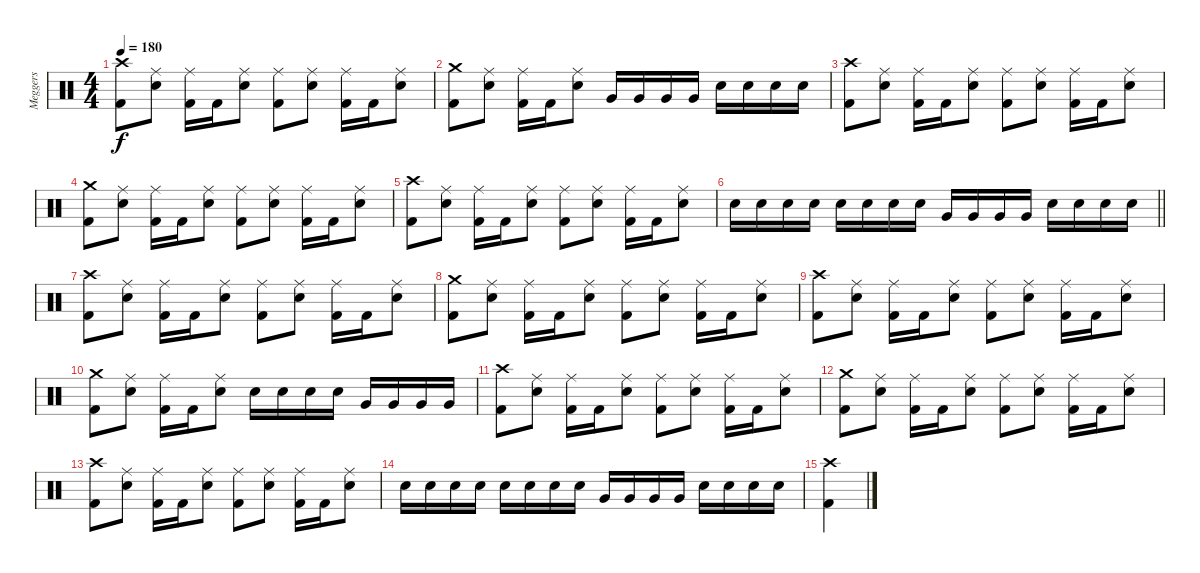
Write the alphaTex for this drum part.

\track ("Meggers" "Meggers") {instrument percussion}
\staff {score}
\articulation defaults
\ts (4 4)
\tempo 180
\clef neutral
\ks c
("Crash high (hit)" "Kick (hit) 2").8{dy f} ("Ride (middle)" "Snare (hit) 2").8 ("Ride (middle)" "Kick (hit) 2").16 "Kick (hit) 2".16 ("Ride (middle)" "Snare (hit) 2").8 ("Ride (middle)" "Kick (hit) 2").8 ("Ride (middle)" "Snare (hit) 2").8 ("Ride (middle)" "Kick (hit) 2").16 "Kick (hit) 2".16 ("Ride (middle)" "Snare (hit) 2").8 |
("Crash medium (hit)" "Kick (hit) 2").8 ("Ride (middle)" "Snare (hit) 2").8 ("Ride (middle)" "Kick (hit) 2").16 "Kick (hit) 2".16 ("Ride (middle)" "Snare (hit) 2").8 "Very Low Tom (hit)".16 "Very Low Tom (hit)".16 "Very Low Tom (hit)".16 "Very Low Tom (hit)".16 "Snare (hit) 2".16 "Snare (hit) 2".16 "Snare (hit) 2".16 "Snare (hit) 2".16 |
("Crash high (hit)" "Kick (hit) 2").8 ("Ride (middle)" "Snare (hit) 2").8 ("Ride (middle)" "Kick (hit) 2").16 "Kick (hit) 2".16 ("Ride (middle)" "Snare (hit) 2").8 ("Ride (middle)" "Kick (hit) 2").8 ("Ride (middle)" "Snare (hit) 2").8 ("Ride (middle)" "Kick (hit) 2").16 "Kick (hit) 2".16 ("Ride (middle)" "Snare (hit) 2").8 |
("Crash medium (hit)" "Kick (hit) 2").8 ("Ride (middle)" "Snare (hit) 2").8 ("Ride (middle)" "Kick (hit) 2").16 "Kick (hit) 2".16 ("Ride (middle)" "Snare (hit) 2").8 ("Ride (middle)" "Kick (hit) 2").8 ("Ride (middle)" "Snare (hit) 2").8 ("Ride (middle)" "Kick (hit) 2").16 "Kick (hit) 2".16 ("Ride (middle)" "Snare (hit) 2").8 |
("Crash high (hit)" "Kick (hit) 2").8 ("Ride (middle)" "Snare (hit) 2").8 ("Ride (middle)" "Kick (hit) 2").16 "Kick (hit) 2".16 ("Ride (middle)" "Snare (hit) 2").8 ("Ride (middle)" "Kick (hit) 2").8 ("Ride (middle)" "Snare (hit) 2").8 ("Ride (middle)" "Kick (hit) 2").16 "Kick (hit) 2".16 ("Ride (middle)" "Snare (hit) 2").8 |
\barLineRight lightlight "Snare (hit) 2".16 "Snare (hit) 2".16 "Snare (hit) 2".16 "Snare (hit) 2".16 "Snare (hit) 2".16 "Snare (hit) 2".16 "Snare (hit) 2".16 "Snare (hit) 2".16 "Very Low Tom (hit)".16 "Very Low Tom (hit)".16 "Very Low Tom (hit)".16 "Very Low Tom (hit)".16 "Snare (hit) 2".16 "Snare (hit) 2".16 "Snare (hit) 2".16 "Snare (hit) 2".16
|
("Crash high (hit)" "Kick (hit) 2").8 ("Ride (middle)" "Snare (hit) 2").8 ("Ride (middle)" "Kick (hit) 2").16 "Kick (hit) 2".16 ("Ride (middle)" "Snare (hit) 2").8 ("Ride (middle)" "Kick (hit) 2").8 ("Ride (middle)" "Snare (hit) 2").8 ("Ride (middle)" "Kick (hit) 2").16 "Kick (hit) 2".16 ("Ride (middle)" "Snare (hit) 2").8 |
("Crash medium (hit)" "Kick (hit) 2").8 ("Ride (middle)" "Snare (hit) 2").8 ("Ride (middle)" "Kick (hit) 2").16 "Kick (hit) 2".16 ("Ride (middle)" "Snare (hit) 2").8 ("Ride (middle)" "Kick (hit) 2").8 ("Ride (middle)" "Snare (hit) 2").8 ("Ride (middle)" "Kick (hit) 2").16 "Kick (hit) 2".16 ("Ride (middle)" "Snare (hit) 2").8 |
("Crash high (hit)" "Kick (hit) 2").8 ("Ride (middle)" "Snare (hit) 2").8 ("Ride (middle)" "Kick (hit) 2").16 "Kick (hit) 2".16 ("Ride (middle)" "Snare (hit) 2").8 ("Ride (middle)" "Kick (hit) 2").8 ("Ride (middle)" "Snare (hit) 2").8 ("Ride (middle)" "Kick (hit) 2").16 "Kick (hit) 2".16 ("Ride (middle)" "Snare (hit) 2").8 |
("Crash medium (hit)" "Kick (hit) 2").8 ("Ride (middle)" "Snare (hit) 2").8 ("Ride (middle)" "Kick (hit) 2").16 "Kick (hit) 2".16 ("Ride (middle)" "Snare (hit) 2").8 "Snare (hit) 2".16 "Snare (hit) 2".16 "Snare (hit) 2".16 "Snare (hit) 2".16 "Very Low Tom (hit)".16 "Very Low Tom (hit)".16 "Very Low Tom (hit)".16 "Very Low Tom (hit)".16 |
("Crash high (hit)" "Kick (hit) 2").8 ("Ride (middle)" "Snare (hit) 2").8 ("Ride (middle)" "Kick (hit) 2").16 "Kick (hit) 2".16 ("Ride (middle)" "Snare (hit) 2").8 ("Ride (middle)" "Kick (hit) 2").8 ("Ride (middle)" "Snare (hit) 2").8 ("Ride (middle)" "Kick (hit) 2").16 "Kick (hit) 2".16 ("Ride (middle)" "Snare (hit) 2").8 |
("Crash medium (hit)" "Kick (hit) 2").8 ("Ride (middle)" "Snare (hit) 2").8 ("Ride (middle)" "Kick (hit) 2").16 "Kick (hit) 2".16 ("Ride (middle)" "Snare (hit) 2").8 ("Ride (middle)" "Kick (hit) 2").8 ("Ride (middle)" "Snare (hit) 2").8 ("Ride (middle)" "Kick (hit) 2").16 "Kick (hit) 2".16 ("Ride (middle)" "Snare (hit) 2").8 |
("Crash high (hit)" "Kick (hit) 2").8 ("Ride (middle)" "Snare (hit) 2").8 ("Ride (middle)" "Kick (hit) 2").16 "Kick (hit) 2".16 ("Ride (middle)" "Snare (hit) 2").8 ("Ride (middle)" "Kick (hit) 2").8 ("Ride (middle)" "Snare (hit) 2").8 ("Ride (middle)" "Kick (hit) 2").16 "Kick (hit) 2".16 ("Ride (middle)" "Snare (hit) 2").8 |
"Snare (hit) 2".16 "Snare (hit) 2".16 "Snare (hit) 2".16 "Snare (hit) 2".16 "Snare (hit) 2".16 "Snare (hit) 2".16 "Snare (hit) 2".16 "Snare (hit) 2".16 "Very Low Tom (hit)".16 "Very Low Tom (hit)".16 "Very Low Tom (hit)".16 "Very Low Tom (hit)".16 "Snare (hit) 2".16 "Snare (hit) 2".16 "Snare (hit) 2".16 "Snare (hit) 2".16 |
("Crash high (hit)" "Kick (hit) 2").4
